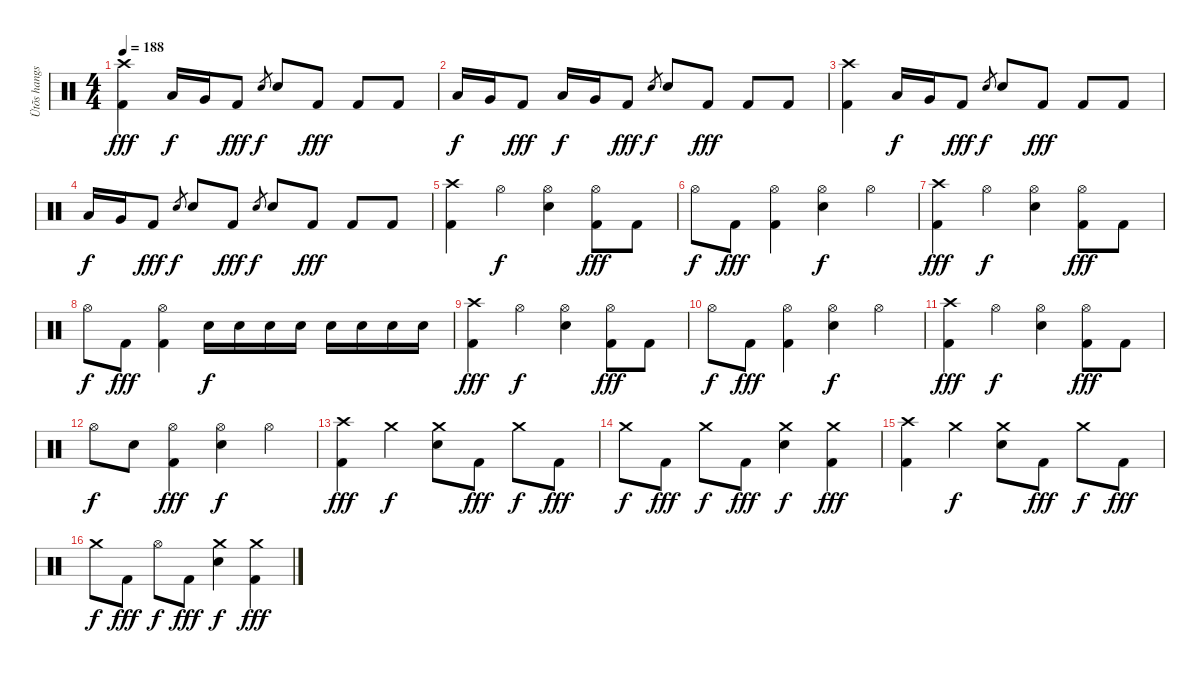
\track ("Ütõs hangszer" "Ütõs hangs") {instrument percussion}
\staff {score}
\articulation defaults
\ts (4 4)
\tempo 188
\clef neutral
\ks c
("Crash high (hit)" "Kick (hit) 2").4{dy fff} "Low Tom (hit)".16{dy f} "Very Low Tom (hit)".16 "Kick (hit) 2".8{dy fff} "Electric Snare (hit)".8{gr dy f} "Electric Snare (hit)".8 "Kick (hit) 2".8{dy fff} "Kick (hit) 2".8 "Kick (hit) 2".8 |
"Low Tom (hit)".16{dy f} "Very Low Tom (hit)".16 "Kick (hit) 2".8{dy fff} "Low Tom (hit)".16{dy f} "Very Low Tom (hit)".16 "Kick (hit) 2".8{dy fff} "Electric Snare (hit)".8{gr dy f} "Electric Snare (hit)".8 "Kick (hit) 2".8{dy fff} "Kick (hit) 2".8 "Kick (hit) 2".8 |
("Crash high (hit)" "Kick (hit) 2").4 "Low Tom (hit)".16{dy f} "Very Low Tom (hit)".16 "Kick (hit) 2".8{dy fff} "Electric Snare (hit)".8{gr dy f} "Electric Snare (hit)".8 "Kick (hit) 2".8{dy fff} "Kick (hit) 2".8 "Kick (hit) 2".8 |
"Low Tom (hit)".16{dy f} "Very Low Tom (hit)".16 "Kick (hit) 2".8{dy fff} "Electric Snare (hit)".8{gr dy f} "Electric Snare (hit)".8 "Kick (hit) 2".8{dy fff} "Electric Snare (hit)".8{gr dy f} "Electric Snare (hit)".8 "Kick (hit) 2".8{dy fff} "Kick (hit) 2".8 "Kick (hit) 2".8 |
("Crash high (hit)" "Kick (hit) 2").4 "Hi-Hat (open)".4{dy f} ("Hi-Hat (open)" "Electric Snare (hit)").4 ("Hi-Hat (open)" "Kick (hit) 2").8{dy fff} "Kick (hit) 2".8 |
"Hi-Hat (open)".8{dy f} "Kick (hit) 2".8{dy fff} ("Hi-Hat (open)" "Kick (hit) 2").4 ("Hi-Hat (open)" "Electric Snare (hit)").4{dy f} "Hi-Hat (open)".4 |
("Crash high (hit)" "Kick (hit) 2").4{dy fff} "Hi-Hat (open)".4{dy f} ("Hi-Hat (open)" "Electric Snare (hit)").4 ("Hi-Hat (open)" "Kick (hit) 2").8{dy fff} "Kick (hit) 2".8 |
"Hi-Hat (open)".8{dy f} "Kick (hit) 2".8{dy fff} ("Hi-Hat (open)" "Kick (hit) 2").4 "Electric Snare (hit)".16{dy f} "Electric Snare (hit)".16 "Electric Snare (hit)".16 "Electric Snare (hit)".16 "Electric Snare (hit)".16 "Electric Snare (hit)".16 "Electric Snare (hit)".16 "Electric Snare (hit)".16 |
("Crash high (hit)" "Kick (hit) 2").4{dy fff} "Hi-Hat (open)".4{dy f} ("Hi-Hat (open)" "Electric Snare (hit)").4 ("Hi-Hat (open)" "Kick (hit) 2").8{dy fff} "Kick (hit) 2".8 |
"Hi-Hat (open)".8{dy f} "Kick (hit) 2".8{dy fff} ("Hi-Hat (open)" "Kick (hit) 2").4 ("Hi-Hat (open)" "Electric Snare (hit)").4{dy f} "Hi-Hat (open)".4 |
("Crash high (hit)" "Kick (hit) 2").4{dy fff} "Hi-Hat (open)".4{dy f} ("Hi-Hat (open)" "Electric Snare (hit)").4 ("Hi-Hat (open)" "Kick (hit) 2").8{dy fff} "Kick (hit) 2".8 |
"Hi-Hat (open)".8{dy f} "Electric Snare (hit)".8 ("Hi-Hat (open)" "Kick (hit) 2").4{dy fff} ("Hi-Hat (open)" "Electric Snare (hit)").4{dy f} "Hi-Hat (open)".4 |
("Crash high (hit)" "Kick (hit) 2").4{dy fff} "Crash medium (hit)".4{dy f} ("Crash medium (hit)" "Electric Snare (hit)").8 "Kick (hit) 2".8{dy fff} "Crash medium (hit)".8{dy f} "Kick (hit) 2".8{dy fff} |
"Crash medium (hit)".8{dy f} "Kick (hit) 2".8{dy fff} "Crash medium (hit)".8{dy f} "Kick (hit) 2".8{dy fff} ("Crash medium (hit)" "Electric Snare (hit)").4{dy f} ("Crash medium (hit)" "Kick (hit) 2").4{dy fff} |
("Crash high (hit)" "Kick (hit) 2").4 "Crash medium (hit)".4{dy f} ("Crash medium (hit)" "Electric Snare (hit)").8 "Kick (hit) 2".8{dy fff} "Crash medium (hit)".8{dy f} "Kick (hit) 2".8{dy fff} |
"Crash medium (hit)".8{dy f} "Kick (hit) 2".8{dy fff} "Hi-Hat (open)".8{dy f} "Kick (hit) 2".8{dy fff} ("Crash medium (hit)" "Electric Snare (hit)").4{dy f} ("Crash medium (hit)" "Kick (hit) 2").4{dy fff}
